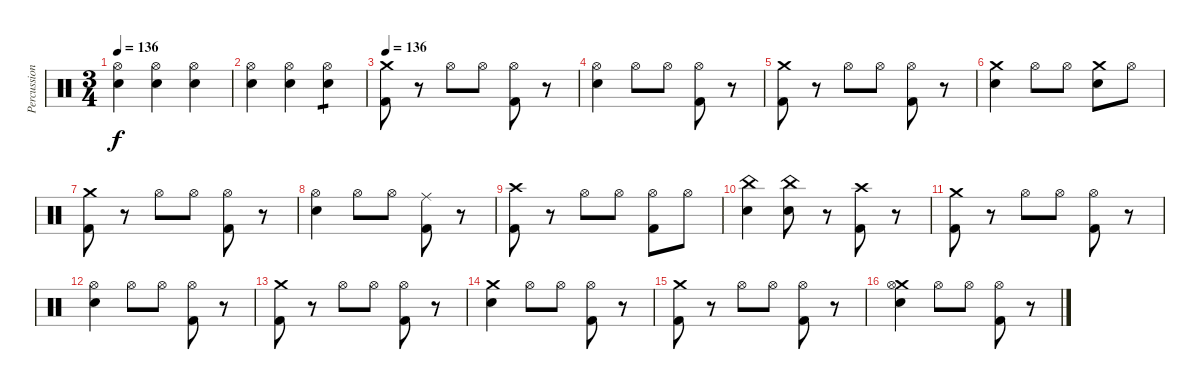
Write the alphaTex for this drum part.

\track ("Percussion" "Percussion") {instrument percussion}
\staff {score}
\articulation defaults
\ts (3 4)
\tempo 136
\clef neutral
\ks c
("Hi-Hat (open)" "Electric Snare (hit)").4{dy f} ("Hi-Hat (open)" "Electric Snare (hit)").4 ("Hi-Hat (open)" "Electric Snare (hit)").4 |
("Hi-Hat (open)" "Electric Snare (hit)").4 ("Hi-Hat (open)" "Electric Snare (hit)").4 ("Hi-Hat (open)" "Electric Snare (hit)").4{tp 1} |
\tempo 136
("Crash medium (hit)" "Kick (hit) 2").8 r.8 "Hi-Hat (open)".8 "Hi-Hat (open)".8 ("Hi-Hat (open)" "Kick (hit) 2").8 r.8 |
("Hi-Hat (open)" "Electric Snare (hit)").4 "Hi-Hat (open)".8 "Hi-Hat (open)".8 ("Hi-Hat (open)" "Kick (hit) 2").8 r.8 |
("Crash medium (hit)" "Kick (hit) 2").8 r.8 "Hi-Hat (open)".8 "Hi-Hat (open)".8 ("Hi-Hat (open)" "Kick (hit) 2").8 r.8 |
("Crash medium (hit)" "Electric Snare (hit)").4 "Hi-Hat (open)".8 "Hi-Hat (open)".8 ("Crash medium (hit)" "Electric Snare (hit)").8 "Hi-Hat (open)".8 |
("Crash medium (hit)" "Kick (hit) 2").8 r.8 "Hi-Hat (open)".8 "Hi-Hat (open)".8 ("Hi-Hat (open)" "Kick (hit) 2").8 r.8 |
("Hi-Hat (open)" "Electric Snare (hit)").4 "Hi-Hat (open)".8 "Hi-Hat (open)".8 ("Ride (middle)" "Kick (hit) 2").8 r.8 |
("Crash high (hit)" "Kick (hit) 2").8 r.8 "Hi-Hat (open)".8 "Hi-Hat (open)".8 ("Hi-Hat (open)" "Kick (hit) 2").8 "Hi-Hat (open)".8 |
("China (hit)" "Electric Snare (hit)").4 ("China (hit)" "Electric Snare (hit)").8 r.8 ("Crash high (hit)" "Kick (hit) 2").8 r.8 |
("Crash medium (hit)" "Kick (hit) 2").8 r.8 "Hi-Hat (open)".8 "Hi-Hat (open)".8 ("Hi-Hat (open)" "Kick (hit) 2").8 r.8 |
("Hi-Hat (open)" "Electric Snare (hit)").4 "Hi-Hat (open)".8 "Hi-Hat (open)".8 ("Hi-Hat (open)" "Kick (hit) 2").8 r.8 |
("Crash medium (hit)" "Kick (hit) 2").8 r.8 "Hi-Hat (open)".8 "Hi-Hat (open)".8 ("Hi-Hat (open)" "Kick (hit) 2").8 r.8 |
("Crash medium (hit)" "Electric Snare (hit)").4 "Hi-Hat (open)".8 "Hi-Hat (open)".8 ("Hi-Hat (open)" "Kick (hit) 2").8 r.8 |
("Crash medium (hit)" "Kick (hit) 2").8 r.8 "Hi-Hat (open)".8 "Hi-Hat (open)".8 ("Hi-Hat (open)" "Kick (hit) 2").8 r.8 |
("Crash medium (hit)" "Hi-Hat (open)" "Electric Snare (hit)").4 "Hi-Hat (open)".8 "Hi-Hat (open)".8 ("Hi-Hat (open)" "Kick (hit) 2").8 r.8
